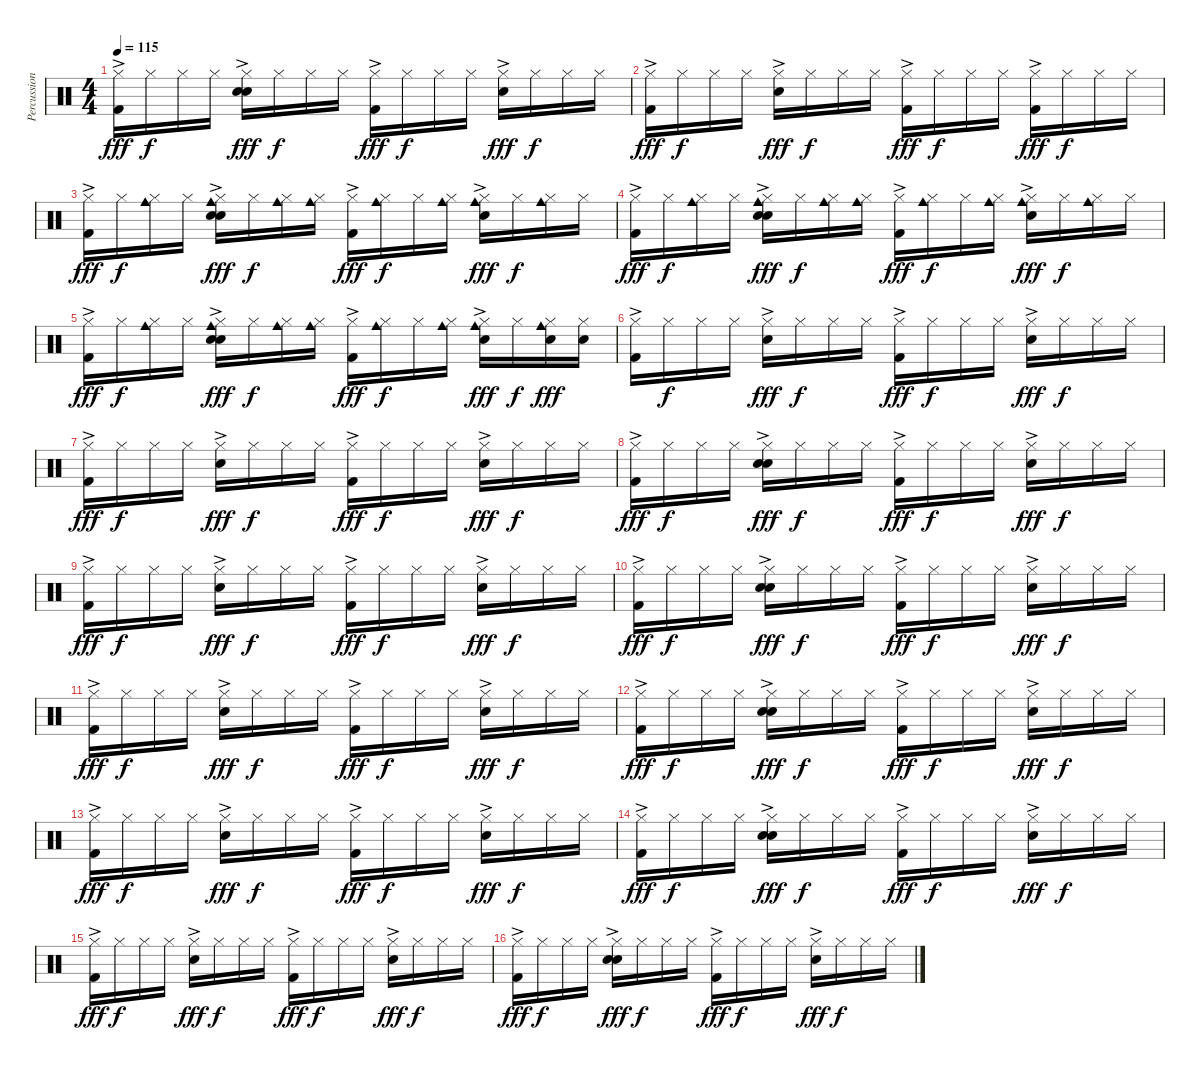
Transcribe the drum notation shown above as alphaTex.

\track ("Percussion" "Percussion") {instrument percussion}
\staff {score}
\articulation defaults
\ts (4 4)
\tempo 115
\clef neutral
\ks c
("Hi-Hat (closed)"{ac} "Kick (hit) 2").16{dy fff} "Hi-Hat (closed)".16{dy f} "Hi-Hat (closed)".16 "Hi-Hat (closed)".16 ("Hi-Hat (closed)"{ac} "Snare (hit) 2" "Hand Clap (hit)").16{dy fff} "Hi-Hat (closed)".16{dy f} "Hi-Hat (closed)".16 "Hi-Hat (closed)".16 ("Hi-Hat (closed)"{ac} "Kick (hit) 2").16{dy fff} "Hi-Hat (closed)".16{dy f} "Hi-Hat (closed)".16 "Hi-Hat (closed)".16 ("Hi-Hat (closed)"{ac} "Snare (hit) 2").16{dy fff} "Hi-Hat (closed)".16{dy f} "Hi-Hat (closed)".16 "Hi-Hat (closed)".16 |
("Hi-Hat (closed)"{ac} "Kick (hit) 2").16{dy fff} "Hi-Hat (closed)".16{dy f} "Hi-Hat (closed)".16 "Hi-Hat (closed)".16 ("Hi-Hat (closed)"{ac} "Snare (hit) 2").16{dy fff} "Hi-Hat (closed)".16{dy f} "Hi-Hat (closed)".16 "Hi-Hat (closed)".16 ("Hi-Hat (closed)"{ac} "Kick (hit) 2").16{dy fff} "Hi-Hat (closed)".16{dy f} "Hi-Hat (closed)".16 "Hi-Hat (closed)".16 ("Hi-Hat (closed)"{ac} "Kick (hit) 2").16{dy fff} "Hi-Hat (closed)".16{dy f} "Hi-Hat (closed)".16 "Hi-Hat (closed)".16 |
("Hi-Hat (closed)"{ac} "Kick (hit) 2").16{dy fff} "Hi-Hat (closed)".16{dy f} ("Hi-Hat (closed)" "Cowbell medium (hit)").16 "Hi-Hat (closed)".16 ("Hi-Hat (closed)"{ac} "Snare (hit) 2" "Cowbell medium (hit)" "Hand Clap (hit)").16{dy fff} "Hi-Hat (closed)".16{dy f} ("Hi-Hat (closed)" "Cowbell medium (hit)").16 ("Hi-Hat (closed)" "Cowbell medium (hit)").16 ("Hi-Hat (closed)"{ac} "Kick (hit) 2").16{dy fff} ("Hi-Hat (closed)" "Cowbell medium (hit)").16{dy f} "Hi-Hat (closed)".16 ("Hi-Hat (closed)" "Cowbell medium (hit)").16 ("Hi-Hat (closed)"{ac} "Snare (hit) 2" "Cowbell medium (hit)").16{dy fff} "Hi-Hat (closed)".16{dy f} ("Hi-Hat (closed)" "Cowbell medium (hit)").16 "Hi-Hat (closed)".16 |
("Hi-Hat (closed)"{ac} "Kick (hit) 2").16{dy fff} "Hi-Hat (closed)".16{dy f} ("Hi-Hat (closed)" "Cowbell medium (hit)").16 "Hi-Hat (closed)".16 ("Hi-Hat (closed)"{ac} "Snare (hit) 2" "Cowbell medium (hit)" "Hand Clap (hit)").16{dy fff} "Hi-Hat (closed)".16{dy f} ("Hi-Hat (closed)" "Cowbell medium (hit)").16 ("Hi-Hat (closed)" "Cowbell medium (hit)").16 ("Hi-Hat (closed)"{ac} "Kick (hit) 2").16{dy fff} ("Hi-Hat (closed)" "Cowbell medium (hit)").16{dy f} "Hi-Hat (closed)".16 ("Hi-Hat (closed)" "Cowbell medium (hit)").16 ("Hi-Hat (closed)"{ac} "Snare (hit) 2" "Cowbell medium (hit)").16{dy fff} "Hi-Hat (closed)".16{dy f} ("Hi-Hat (closed)" "Cowbell medium (hit)").16 "Hi-Hat (closed)".16 |
("Hi-Hat (closed)"{ac} "Kick (hit) 2").16{dy fff} "Hi-Hat (closed)".16{dy f} ("Hi-Hat (closed)" "Cowbell medium (hit)").16 "Hi-Hat (closed)".16 ("Hi-Hat (closed)"{ac} "Snare (hit) 2" "Cowbell medium (hit)" "Hand Clap (hit)").16{dy fff} "Hi-Hat (closed)".16{dy f} ("Hi-Hat (closed)" "Cowbell medium (hit)").16 ("Hi-Hat (closed)" "Cowbell medium (hit)").16 ("Hi-Hat (closed)"{ac} "Kick (hit) 2").16{dy fff} ("Hi-Hat (closed)" "Cowbell medium (hit)").16{dy f} "Hi-Hat (closed)".16 ("Hi-Hat (closed)" "Cowbell medium (hit)").16 ("Hi-Hat (closed)"{ac} "Snare (hit) 2" "Cowbell medium (hit)").16{dy fff} "Hi-Hat (closed)".16{dy f} ("Hi-Hat (closed)" "Snare (hit) 2" "Cowbell medium (hit)").16{dy fff} ("Hi-Hat (closed)" "Snare (hit) 2").16 |
("Hi-Hat (closed)"{ac} "Kick (hit) 2").16 "Hi-Hat (closed)".16{dy f} "Hi-Hat (closed)".16 "Hi-Hat (closed)".16 ("Hi-Hat (closed)"{ac} "Snare (hit) 2").16{dy fff} "Hi-Hat (closed)".16{dy f} "Hi-Hat (closed)".16 "Hi-Hat (closed)".16 ("Hi-Hat (closed)"{ac} "Kick (hit) 2").16{dy fff} "Hi-Hat (closed)".16{dy f} "Hi-Hat (closed)".16 "Hi-Hat (closed)".16 ("Hi-Hat (closed)"{ac} "Snare (hit) 2").16{dy fff} "Hi-Hat (closed)".16{dy f} "Hi-Hat (closed)".16 "Hi-Hat (closed)".16 |
("Hi-Hat (closed)"{ac} "Kick (hit) 2").16{dy fff} "Hi-Hat (closed)".16{dy f} "Hi-Hat (closed)".16 "Hi-Hat (closed)".16 ("Hi-Hat (closed)"{ac} "Snare (hit) 2").16{dy fff} "Hi-Hat (closed)".16{dy f} "Hi-Hat (closed)".16 "Hi-Hat (closed)".16 ("Hi-Hat (closed)"{ac} "Kick (hit) 2").16{dy fff} "Hi-Hat (closed)".16{dy f} "Hi-Hat (closed)".16 "Hi-Hat (closed)".16 ("Hi-Hat (closed)"{ac} "Snare (hit) 2").16{dy fff} "Hi-Hat (closed)".16{dy f} "Hi-Hat (closed)".16 "Hi-Hat (closed)".16 |
("Hi-Hat (closed)"{ac} "Kick (hit) 2").16{dy fff} "Hi-Hat (closed)".16{dy f} "Hi-Hat (closed)".16 "Hi-Hat (closed)".16 ("Hi-Hat (closed)"{ac} "Snare (hit) 2" "Hand Clap (hit)").16{dy fff} "Hi-Hat (closed)".16{dy f} "Hi-Hat (closed)".16 "Hi-Hat (closed)".16 ("Hi-Hat (closed)"{ac} "Kick (hit) 2").16{dy fff} "Hi-Hat (closed)".16{dy f} "Hi-Hat (closed)".16 "Hi-Hat (closed)".16 ("Hi-Hat (closed)"{ac} "Snare (hit) 2").16{dy fff} "Hi-Hat (closed)".16{dy f} "Hi-Hat (closed)".16 "Hi-Hat (closed)".16 |
("Hi-Hat (closed)"{ac} "Kick (hit) 2").16{dy fff} "Hi-Hat (closed)".16{dy f} "Hi-Hat (closed)".16 "Hi-Hat (closed)".16 ("Hi-Hat (closed)"{ac} "Snare (hit) 2").16{dy fff} "Hi-Hat (closed)".16{dy f} "Hi-Hat (closed)".16 "Hi-Hat (closed)".16 ("Hi-Hat (closed)"{ac} "Kick (hit) 2").16{dy fff} "Hi-Hat (closed)".16{dy f} "Hi-Hat (closed)".16 "Hi-Hat (closed)".16 ("Hi-Hat (closed)"{ac} "Snare (hit) 2").16{dy fff} "Hi-Hat (closed)".16{dy f} "Hi-Hat (closed)".16 "Hi-Hat (closed)".16 |
("Hi-Hat (closed)"{ac} "Kick (hit) 2").16{dy fff} "Hi-Hat (closed)".16{dy f} "Hi-Hat (closed)".16 "Hi-Hat (closed)".16 ("Hi-Hat (closed)"{ac} "Snare (hit) 2" "Hand Clap (hit)").16{dy fff} "Hi-Hat (closed)".16{dy f} "Hi-Hat (closed)".16 "Hi-Hat (closed)".16 ("Hi-Hat (closed)"{ac} "Kick (hit) 2").16{dy fff} "Hi-Hat (closed)".16{dy f} "Hi-Hat (closed)".16 "Hi-Hat (closed)".16 ("Hi-Hat (closed)"{ac} "Snare (hit) 2").16{dy fff} "Hi-Hat (closed)".16{dy f} "Hi-Hat (closed)".16 "Hi-Hat (closed)".16 |
("Hi-Hat (closed)"{ac} "Kick (hit) 2").16{dy fff} "Hi-Hat (closed)".16{dy f} "Hi-Hat (closed)".16 "Hi-Hat (closed)".16 ("Hi-Hat (closed)"{ac} "Snare (hit) 2").16{dy fff} "Hi-Hat (closed)".16{dy f} "Hi-Hat (closed)".16 "Hi-Hat (closed)".16 ("Hi-Hat (closed)"{ac} "Kick (hit) 2").16{dy fff} "Hi-Hat (closed)".16{dy f} "Hi-Hat (closed)".16 "Hi-Hat (closed)".16 ("Hi-Hat (closed)"{ac} "Snare (hit) 2").16{dy fff} "Hi-Hat (closed)".16{dy f} "Hi-Hat (closed)".16 "Hi-Hat (closed)".16 |
("Hi-Hat (closed)"{ac} "Kick (hit) 2").16{dy fff} "Hi-Hat (closed)".16{dy f} "Hi-Hat (closed)".16 "Hi-Hat (closed)".16 ("Hi-Hat (closed)"{ac} "Snare (hit) 2" "Hand Clap (hit)").16{dy fff} "Hi-Hat (closed)".16{dy f} "Hi-Hat (closed)".16 "Hi-Hat (closed)".16 ("Hi-Hat (closed)"{ac} "Kick (hit) 2").16{dy fff} "Hi-Hat (closed)".16{dy f} "Hi-Hat (closed)".16 "Hi-Hat (closed)".16 ("Hi-Hat (closed)"{ac} "Snare (hit) 2").16{dy fff} "Hi-Hat (closed)".16{dy f} "Hi-Hat (closed)".16 "Hi-Hat (closed)".16 |
("Hi-Hat (closed)"{ac} "Kick (hit) 2").16{dy fff} "Hi-Hat (closed)".16{dy f} "Hi-Hat (closed)".16 "Hi-Hat (closed)".16 ("Hi-Hat (closed)"{ac} "Snare (hit) 2").16{dy fff} "Hi-Hat (closed)".16{dy f} "Hi-Hat (closed)".16 "Hi-Hat (closed)".16 ("Hi-Hat (closed)"{ac} "Kick (hit) 2").16{dy fff} "Hi-Hat (closed)".16{dy f} "Hi-Hat (closed)".16 "Hi-Hat (closed)".16 ("Hi-Hat (closed)"{ac} "Snare (hit) 2").16{dy fff} "Hi-Hat (closed)".16{dy f} "Hi-Hat (closed)".16 "Hi-Hat (closed)".16 |
("Hi-Hat (closed)"{ac} "Kick (hit) 2").16{dy fff} "Hi-Hat (closed)".16{dy f} "Hi-Hat (closed)".16 "Hi-Hat (closed)".16 ("Hi-Hat (closed)"{ac} "Snare (hit) 2" "Hand Clap (hit)").16{dy fff} "Hi-Hat (closed)".16{dy f} "Hi-Hat (closed)".16 "Hi-Hat (closed)".16 ("Hi-Hat (closed)"{ac} "Kick (hit) 2").16{dy fff} "Hi-Hat (closed)".16{dy f} "Hi-Hat (closed)".16 "Hi-Hat (closed)".16 ("Hi-Hat (closed)"{ac} "Snare (hit) 2").16{dy fff} "Hi-Hat (closed)".16{dy f} "Hi-Hat (closed)".16 "Hi-Hat (closed)".16 |
("Hi-Hat (closed)"{ac} "Kick (hit) 2").16{dy fff} "Hi-Hat (closed)".16{dy f} "Hi-Hat (closed)".16 "Hi-Hat (closed)".16 ("Hi-Hat (closed)"{ac} "Snare (hit) 2").16{dy fff} "Hi-Hat (closed)".16{dy f} "Hi-Hat (closed)".16 "Hi-Hat (closed)".16 ("Hi-Hat (closed)"{ac} "Kick (hit) 2").16{dy fff} "Hi-Hat (closed)".16{dy f} "Hi-Hat (closed)".16 "Hi-Hat (closed)".16 ("Hi-Hat (closed)"{ac} "Snare (hit) 2").16{dy fff} "Hi-Hat (closed)".16{dy f} "Hi-Hat (closed)".16 "Hi-Hat (closed)".16 |
("Hi-Hat (closed)"{ac} "Kick (hit) 2").16{dy fff} "Hi-Hat (closed)".16{dy f} "Hi-Hat (closed)".16 "Hi-Hat (closed)".16 ("Hi-Hat (closed)"{ac} "Snare (hit) 2" "Hand Clap (hit)").16{dy fff} "Hi-Hat (closed)".16{dy f} "Hi-Hat (closed)".16 "Hi-Hat (closed)".16 ("Hi-Hat (closed)"{ac} "Kick (hit) 2").16{dy fff} "Hi-Hat (closed)".16{dy f} "Hi-Hat (closed)".16 "Hi-Hat (closed)".16 ("Hi-Hat (closed)"{ac} "Snare (hit) 2").16{dy fff} "Hi-Hat (closed)".16{dy f} "Hi-Hat (closed)".16 "Hi-Hat (closed)".16
